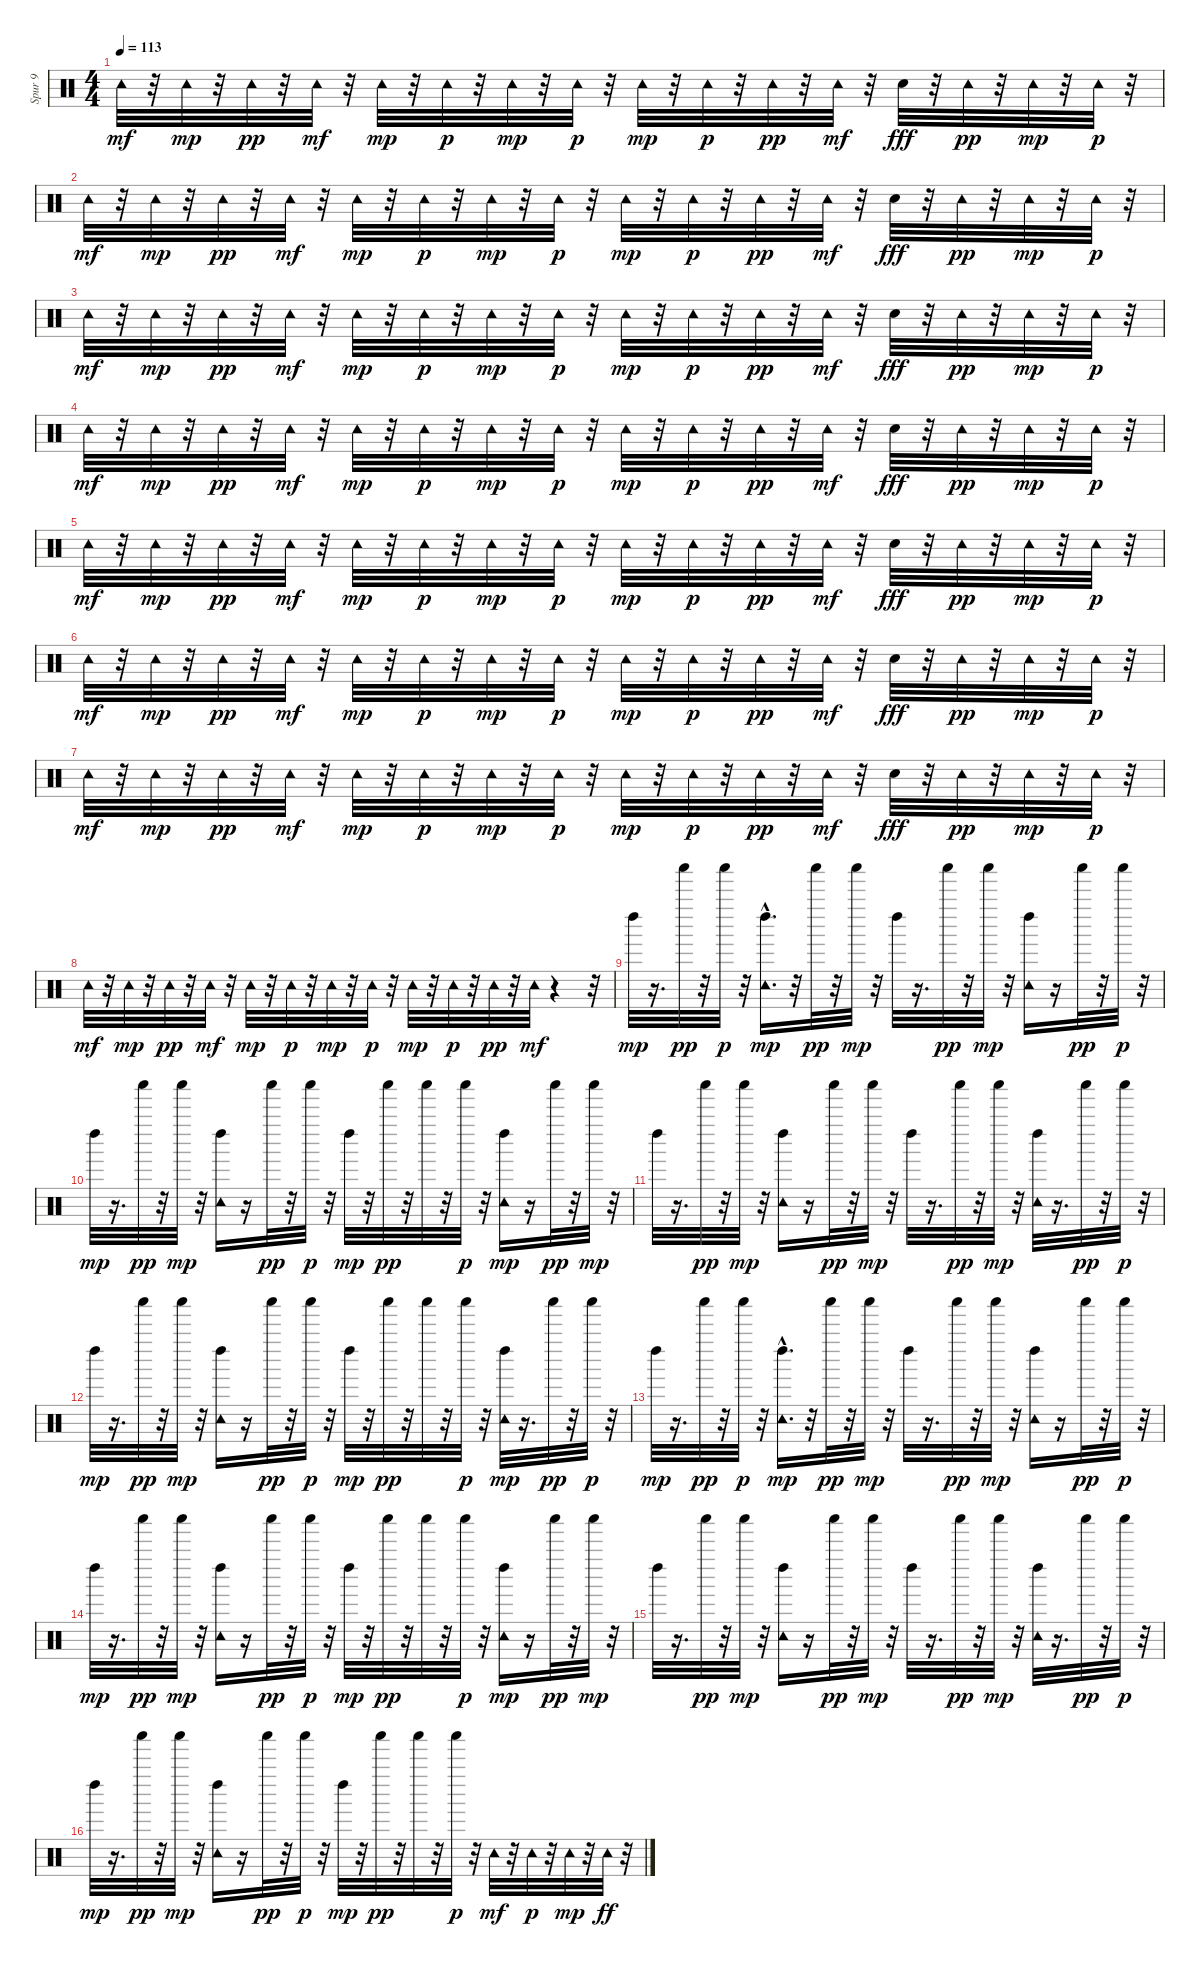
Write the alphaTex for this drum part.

\track ("Spur 9" "Spur 9") {instrument percussion}
\staff {score}
\articulation defaults
\ts (4 4)
\tempo 113
\clef neutral
\ks c "Tambourine (hit)".32{dy mf}
r.32 "Tambourine (hit)".32{dy mp} r.32 "Tambourine (hit)".32{dy pp} r.32 "Tambourine (hit)".32{dy mf} r.32 "Tambourine (hit)".32{dy mp} r.32 "Tambourine (hit)".32{dy p} r.32 "Tambourine (hit)".32{dy mp} r.32 "Tambourine (hit)".32{dy p} r.32 "Tambourine (hit)".32{dy mp} r.32 "Tambourine (hit)".32{dy p} r.32 "Tambourine (hit)".32{dy pp} r.32 "Tambourine (hit)".32{dy mf} r.32 "Hand Clap (hit)".32{dy fff} r.32 "Tambourine (hit)".32{dy pp} r.32 "Tambourine (hit)".32{dy mp} r.32 "Tambourine (hit)".32{dy p} r.32 |
"Tambourine (hit)".32{dy mf} r.32 "Tambourine (hit)".32{dy mp} r.32 "Tambourine (hit)".32{dy pp} r.32 "Tambourine (hit)".32{dy mf} r.32 "Tambourine (hit)".32{dy mp} r.32 "Tambourine (hit)".32{dy p} r.32 "Tambourine (hit)".32{dy mp} r.32 "Tambourine (hit)".32{dy p} r.32 "Tambourine (hit)".32{dy mp} r.32 "Tambourine (hit)".32{dy p} r.32 "Tambourine (hit)".32{dy pp} r.32 "Tambourine (hit)".32{dy mf} r.32 "Hand Clap (hit)".32{dy fff} r.32 "Tambourine (hit)".32{dy pp} r.32 "Tambourine (hit)".32{dy mp} r.32 "Tambourine (hit)".32{dy p} r.32 |
"Tambourine (hit)".32{dy mf} r.32 "Tambourine (hit)".32{dy mp} r.32 "Tambourine (hit)".32{dy pp} r.32 "Tambourine (hit)".32{dy mf} r.32 "Tambourine (hit)".32{dy mp} r.32 "Tambourine (hit)".32{dy p} r.32 "Tambourine (hit)".32{dy mp} r.32 "Tambourine (hit)".32{dy p} r.32 "Tambourine (hit)".32{dy mp} r.32 "Tambourine (hit)".32{dy p} r.32 "Tambourine (hit)".32{dy pp} r.32 "Tambourine (hit)".32{dy mf} r.32 "Hand Clap (hit)".32{dy fff} r.32 "Tambourine (hit)".32{dy pp} r.32 "Tambourine (hit)".32{dy mp} r.32 "Tambourine (hit)".32{dy p} r.32 |
"Tambourine (hit)".32{dy mf} r.32 "Tambourine (hit)".32{dy mp} r.32 "Tambourine (hit)".32{dy pp} r.32 "Tambourine (hit)".32{dy mf} r.32 "Tambourine (hit)".32{dy mp} r.32 "Tambourine (hit)".32{dy p} r.32 "Tambourine (hit)".32{dy mp} r.32 "Tambourine (hit)".32{dy p} r.32 "Tambourine (hit)".32{dy mp} r.32 "Tambourine (hit)".32{dy p} r.32 "Tambourine (hit)".32{dy pp} r.32 "Tambourine (hit)".32{dy mf} r.32 "Hand Clap (hit)".32{dy fff} r.32 "Tambourine (hit)".32{dy pp} r.32 "Tambourine (hit)".32{dy mp} r.32 "Tambourine (hit)".32{dy p} r.32 |
"Tambourine (hit)".32{dy mf} r.32 "Tambourine (hit)".32{dy mp} r.32 "Tambourine (hit)".32{dy pp} r.32 "Tambourine (hit)".32{dy mf} r.32 "Tambourine (hit)".32{dy mp} r.32 "Tambourine (hit)".32{dy p} r.32 "Tambourine (hit)".32{dy mp} r.32 "Tambourine (hit)".32{dy p} r.32 "Tambourine (hit)".32{dy mp} r.32 "Tambourine (hit)".32{dy p} r.32 "Tambourine (hit)".32{dy pp} r.32 "Tambourine (hit)".32{dy mf} r.32 "Hand Clap (hit)".32{dy fff} r.32 "Tambourine (hit)".32{dy pp} r.32 "Tambourine (hit)".32{dy mp} r.32 "Tambourine (hit)".32{dy p} r.32 |
"Tambourine (hit)".32{dy mf} r.32 "Tambourine (hit)".32{dy mp} r.32 "Tambourine (hit)".32{dy pp} r.32 "Tambourine (hit)".32{dy mf} r.32 "Tambourine (hit)".32{dy mp} r.32 "Tambourine (hit)".32{dy p} r.32 "Tambourine (hit)".32{dy mp} r.32 "Tambourine (hit)".32{dy p} r.32 "Tambourine (hit)".32{dy mp} r.32 "Tambourine (hit)".32{dy p} r.32 "Tambourine (hit)".32{dy pp} r.32 "Tambourine (hit)".32{dy mf} r.32 "Hand Clap (hit)".32{dy fff} r.32 "Tambourine (hit)".32{dy pp} r.32 "Tambourine (hit)".32{dy mp} r.32 "Tambourine (hit)".32{dy p} r.32 |
"Tambourine (hit)".32{dy mf} r.32 "Tambourine (hit)".32{dy mp} r.32 "Tambourine (hit)".32{dy pp} r.32 "Tambourine (hit)".32{dy mf} r.32 "Tambourine (hit)".32{dy mp} r.32 "Tambourine (hit)".32{dy p} r.32 "Tambourine (hit)".32{dy mp} r.32 "Tambourine (hit)".32{dy p} r.32 "Tambourine (hit)".32{dy mp} r.32 "Tambourine (hit)".32{dy p} r.32 "Tambourine (hit)".32{dy pp} r.32 "Tambourine (hit)".32{dy mf} r.32 "Hand Clap (hit)".32{dy fff} r.32 "Tambourine (hit)".32{dy pp} r.32 "Tambourine (hit)".32{dy mp} r.32 "Tambourine (hit)".32{dy p} r.32 |
"Tambourine (hit)".32{dy mf} r.32 "Tambourine (hit)".32{dy mp} r.32 "Tambourine (hit)".32{dy pp} r.32 "Tambourine (hit)".32{dy mf} r.32 "Tambourine (hit)".32{dy mp} r.32 "Tambourine (hit)".32{dy p} r.32 "Tambourine (hit)".32{dy mp} r.32 "Tambourine (hit)".32{dy p} r.32 "Tambourine (hit)".32{dy mp} r.32 "Tambourine (hit)".32{dy p} r.32 "Tambourine (hit)".32{dy pp} r.32 "Tambourine (hit)".32{dy mf} r.4 r.32 |
"Left Maraca (hit)".32{dy mp} r.16{d} "Shaker (hit)".32{dy pp} r.32 "Shaker (hit)".32{dy p} r.32 ("Tambourine (hit)"{hac} "Left Maraca (hit)").16{d dy mp} r.32 "Shaker (hit)".32{dy pp} r.32 "Shaker (hit)".32{dy mp} r.32 "Left Maraca (hit)".32 r.16{d} "Shaker (hit)".32{dy pp} r.32 "Shaker (hit)".32{dy mp} r.32 ("Tambourine (hit)" "Left Maraca (hit)").16 r.16 "Shaker (hit)".32{dy pp} r.32 "Shaker (hit)".32{dy p} r.32 |
"Left Maraca (hit)".32{dy mp} r.16{d} "Shaker (hit)".32{dy pp} r.32 "Shaker (hit)".32{dy mp} r.32 ("Tambourine (hit)" "Left Maraca (hit)").16 r.16 "Shaker (hit)".32{dy pp} r.32 "Shaker (hit)".32{dy p} r.32 "Left Maraca (hit)".32{dy mp} r.32 "Shaker (hit)".32{dy pp} r.32 "Shaker (hit)".32 r.32 "Shaker (hit)".32{dy p} r.32 ("Tambourine (hit)" "Left Maraca (hit)").16{dy mp} r.16 "Shaker (hit)".32{dy pp} r.32 "Shaker (hit)".32{dy mp} r.32 |
"Left Maraca (hit)".32 r.16{d} "Shaker (hit)".32{dy pp} r.32 "Shaker (hit)".32{dy mp} r.32 ("Tambourine (hit)" "Left Maraca (hit)").16 r.16 "Shaker (hit)".32{dy pp} r.32 "Shaker (hit)".32{dy mp} r.32 "Left Maraca (hit)".32 r.16{d} "Shaker (hit)".32{dy pp} r.32 "Shaker (hit)".32{dy mp} r.32 ("Tambourine (hit)" "Left Maraca (hit)").32 r.16{d} "Shaker (hit)".32{dy pp} r.32 "Shaker (hit)".32{dy p} r.32 |
"Left Maraca (hit)".32{dy mp} r.16{d} "Shaker (hit)".32{dy pp} r.32 "Shaker (hit)".32{dy mp} r.32 ("Tambourine (hit)" "Left Maraca (hit)").16 r.16 "Shaker (hit)".32{dy pp} r.32 "Shaker (hit)".32{dy p} r.32 "Left Maraca (hit)".32{dy mp} r.32 "Shaker (hit)".32{dy pp} r.32 "Shaker (hit)".32 r.32 "Shaker (hit)".32{dy p} r.32 ("Tambourine (hit)" "Left Maraca (hit)").32{dy mp} r.16{d} "Shaker (hit)".32{dy pp} r.32 "Shaker (hit)".32{dy p} r.32 |
"Left Maraca (hit)".32{dy mp} r.16{d} "Shaker (hit)".32{dy pp} r.32 "Shaker (hit)".32{dy p} r.32 ("Tambourine (hit)"{hac} "Left Maraca (hit)").16{d dy mp} r.32 "Shaker (hit)".32{dy pp} r.32 "Shaker (hit)".32{dy mp} r.32 "Left Maraca (hit)".32 r.16{d} "Shaker (hit)".32{dy pp} r.32 "Shaker (hit)".32{dy mp} r.32 ("Tambourine (hit)" "Left Maraca (hit)").16 r.16 "Shaker (hit)".32{dy pp} r.32 "Shaker (hit)".32{dy p} r.32 |
"Left Maraca (hit)".32{dy mp} r.16{d} "Shaker (hit)".32{dy pp} r.32 "Shaker (hit)".32{dy mp} r.32 ("Tambourine (hit)" "Left Maraca (hit)").16 r.16 "Shaker (hit)".32{dy pp} r.32 "Shaker (hit)".32{dy p} r.32 "Left Maraca (hit)".32{dy mp} r.32 "Shaker (hit)".32{dy pp} r.32 "Shaker (hit)".32 r.32 "Shaker (hit)".32{dy p} r.32 ("Tambourine (hit)" "Left Maraca (hit)").16{dy mp} r.16 "Shaker (hit)".32{dy pp} r.32 "Shaker (hit)".32{dy mp} r.32 |
"Left Maraca (hit)".32 r.16{d} "Shaker (hit)".32{dy pp} r.32 "Shaker (hit)".32{dy mp} r.32 ("Tambourine (hit)" "Left Maraca (hit)").16 r.16 "Shaker (hit)".32{dy pp} r.32 "Shaker (hit)".32{dy mp} r.32 "Left Maraca (hit)".32 r.16{d} "Shaker (hit)".32{dy pp} r.32 "Shaker (hit)".32{dy mp} r.32 ("Tambourine (hit)" "Left Maraca (hit)").32 r.16{d} "Shaker (hit)".32{dy pp} r.32 "Shaker (hit)".32{dy p} r.32 |
"Left Maraca (hit)".32{dy mp} r.16{d} "Shaker (hit)".32{dy pp} r.32 "Shaker (hit)".32{dy mp} r.32 ("Tambourine (hit)" "Left Maraca (hit)").16 r.16 "Shaker (hit)".32{dy pp} r.32 "Shaker (hit)".32{dy p} r.32 "Left Maraca (hit)".32{dy mp} r.32 "Shaker (hit)".32{dy pp} r.32 "Shaker (hit)".32 r.32 "Shaker (hit)".32{dy p} r.32 "Tambourine (hit)".32{dy mf} r.32 "Tambourine (hit)".32{dy p} r.32 "Tambourine (hit)".32{dy mp} r.32 "Tambourine (hit)".32{dy ff} r.32
